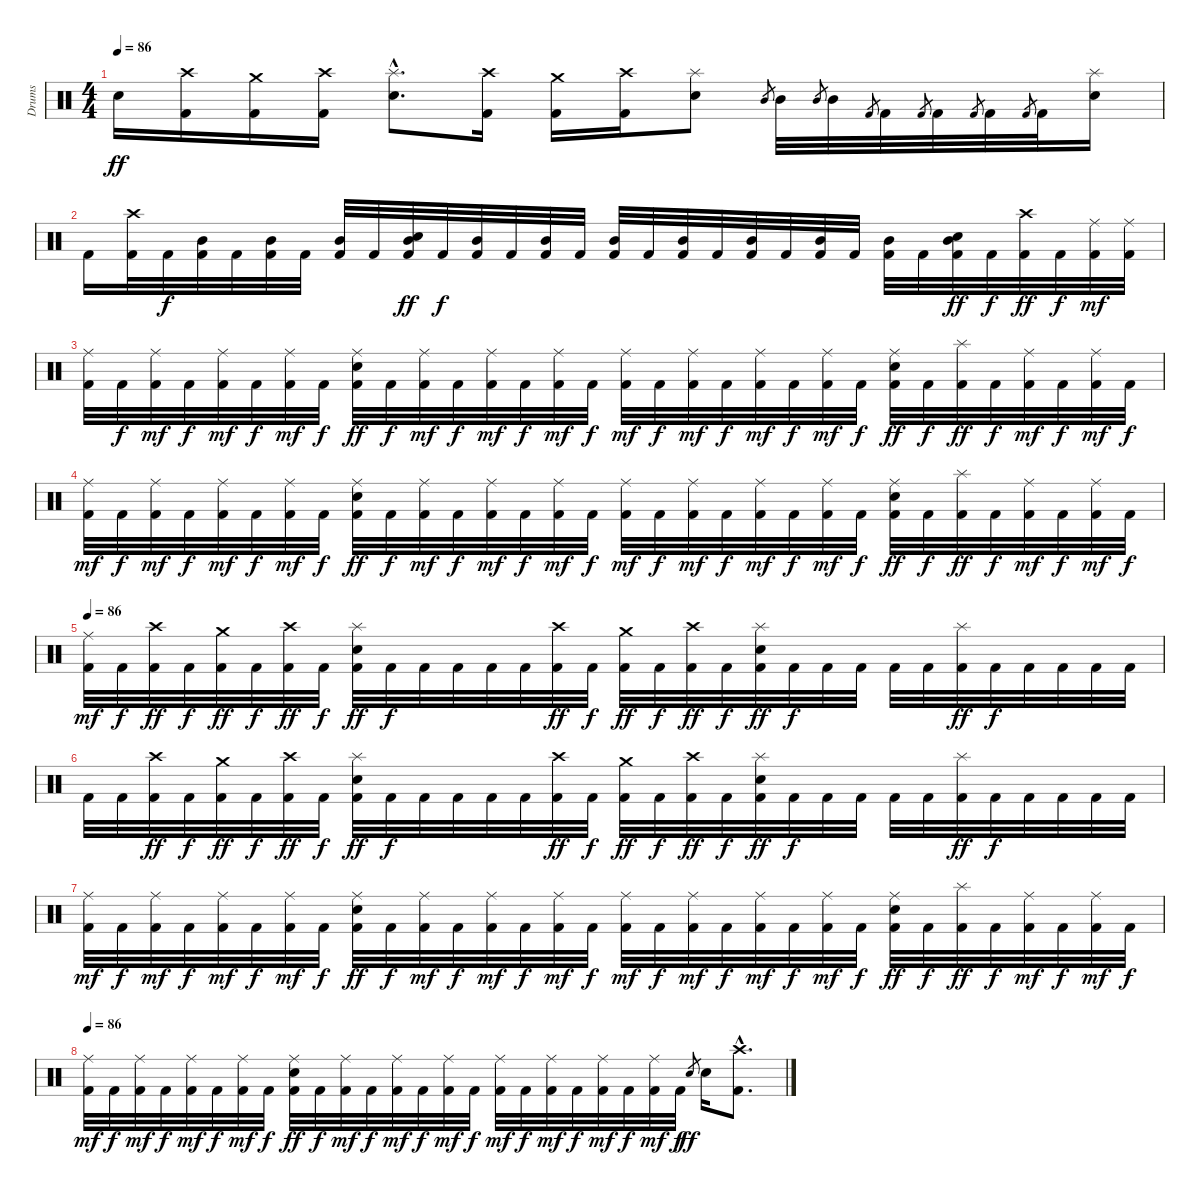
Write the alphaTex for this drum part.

\track ("Drums" "Drums") {instrument percussion}
\staff {score}
\articulation defaults
\ts (4 4)
\tempo 86
\clef neutral
\ks c "Electric Snare (hit)".16{dy ff}
("Crash high (hit)" "Kick (hit) 2").16 ("Crash medium (hit)" "Kick (hit) 2").16 ("Crash high (hit)" "Kick (hit) 2").16 ("Splash (hit)"{hac} "Electric Snare (hit)"{hac}).8{d} ("Crash high (hit)" "Kick (hit) 2").16 ("Crash medium (hit)" "Kick (hit) 2").16 ("Crash high (hit)" "Kick (hit) 2").16 ("Splash (hit)" "Electric Snare (hit)").8 "Mid Tom (hit)".8{gr} "Mid Tom (hit)".32 "Mid Tom (hit)".8{gr} "Mid Tom (hit)".32 "Kick (hit) 2".8{gr} "Kick (hit) 2".32 "Kick (hit) 2".8{gr} "Kick (hit) 2".32 "Kick (hit) 2".8{gr} "Kick (hit) 2".32 "Kick (hit) 2".8{gr} "Kick (hit) 2".32 ("Splash (hit)" "Electric Snare (hit)").16 |
"Kick (hit) 2".16 ("Crash high (hit)" "Kick (hit) 2").32 "Kick (hit) 2".32{dy f} ("Mid Tom (hit)" "Kick (hit) 2").32 "Kick (hit) 2".32 ("Mid Tom (hit)" "Kick (hit) 2").32 "Kick (hit) 2".32 ("Mid Tom (hit)" "Kick (hit) 2").32 "Kick (hit) 2".32 ("Electric Snare (hit)" "Mid Tom (hit)" "Kick (hit) 2").32{dy ff} "Kick (hit) 2".32{dy f} ("Mid Tom (hit)" "Kick (hit) 2").32 "Kick (hit) 2".32 ("Mid Tom (hit)" "Kick (hit) 2").32 "Kick (hit) 2".32 ("Mid Tom (hit)" "Kick (hit) 2").32 "Kick (hit) 2".32 ("Mid Tom (hit)" "Kick (hit) 2").32 "Kick (hit) 2".32 ("Mid Tom (hit)" "Kick (hit) 2").32 "Kick (hit) 2".32 ("Mid Tom (hit)" "Kick (hit) 2").32 "Kick (hit) 2".32 ("Mid Tom (hit)" "Kick (hit) 2").32 "Kick (hit) 2".32 ("Electric Snare (hit)" "Mid Tom (hit)" "Kick (hit) 2").32{dy ff} "Kick (hit) 2".32{dy f} ("Crash high (hit)" "Kick (hit) 2").32{dy ff} "Kick (hit) 2".32{dy f} ("Ride (middle)" "Kick (hit) 2").32{dy mf} ("Ride (middle)" "Kick (hit) 2").32 |
("Ride (middle)" "Kick (hit) 2").32 "Kick (hit) 2".32{dy f} ("Ride (middle)" "Kick (hit) 2").32{dy mf} "Kick (hit) 2".32{dy f} ("Ride (middle)" "Kick (hit) 2").32{dy mf} "Kick (hit) 2".32{dy f} ("Ride (middle)" "Kick (hit) 2").32{dy mf} "Kick (hit) 2".32{dy f} ("Ride (middle)" "Electric Snare (hit)" "Kick (hit) 2").32{dy ff} "Kick (hit) 2".32{dy f} ("Ride (middle)" "Kick (hit) 2").32{dy mf} "Kick (hit) 2".32{dy f} ("Ride (middle)" "Kick (hit) 2").32{dy mf} "Kick (hit) 2".32{dy f} ("Ride (middle)" "Kick (hit) 2").32{dy mf} "Kick (hit) 2".32{dy f} ("Ride (middle)" "Kick (hit) 2").32{dy mf} "Kick (hit) 2".32{dy f} ("Ride (middle)" "Kick (hit) 2").32{dy mf} "Kick (hit) 2".32{dy f} ("Ride (middle)" "Kick (hit) 2").32{dy mf} "Kick (hit) 2".32{dy f} ("Ride (middle)" "Kick (hit) 2").32{dy mf} "Kick (hit) 2".32{dy f} ("Ride (middle)" "Electric Snare (hit)" "Kick (hit) 2").32{dy ff} "Kick (hit) 2".32{dy f} ("Splash (hit)" "Kick (hit) 2").32{dy ff} "Kick (hit) 2".32{dy f} ("Ride (middle)" "Kick (hit) 2").32{dy mf} "Kick (hit) 2".32{dy f} ("Ride (middle)" "Kick (hit) 2").32{dy mf} "Kick (hit) 2".32{dy f} |
("Ride (middle)" "Kick (hit) 2").32{dy mf} "Kick (hit) 2".32{dy f} ("Ride (middle)" "Kick (hit) 2").32{dy mf} "Kick (hit) 2".32{dy f} ("Ride (middle)" "Kick (hit) 2").32{dy mf} "Kick (hit) 2".32{dy f} ("Ride (middle)" "Kick (hit) 2").32{dy mf} "Kick (hit) 2".32{dy f} ("Ride (middle)" "Electric Snare (hit)" "Kick (hit) 2").32{dy ff} "Kick (hit) 2".32{dy f} ("Ride (middle)" "Kick (hit) 2").32{dy mf} "Kick (hit) 2".32{dy f} ("Ride (middle)" "Kick (hit) 2").32{dy mf} "Kick (hit) 2".32{dy f} ("Ride (middle)" "Kick (hit) 2").32{dy mf} "Kick (hit) 2".32{dy f} ("Ride (middle)" "Kick (hit) 2").32{dy mf} "Kick (hit) 2".32{dy f} ("Ride (middle)" "Kick (hit) 2").32{dy mf} "Kick (hit) 2".32{dy f} ("Ride (middle)" "Kick (hit) 2").32{dy mf} "Kick (hit) 2".32{dy f} ("Ride (middle)" "Kick (hit) 2").32{dy mf} "Kick (hit) 2".32{dy f} ("Ride (middle)" "Electric Snare (hit)" "Kick (hit) 2").32{dy ff} "Kick (hit) 2".32{dy f} ("Splash (hit)" "Kick (hit) 2").32{dy ff} "Kick (hit) 2".32{dy f} ("Ride (middle)" "Kick (hit) 2").32{dy mf} "Kick (hit) 2".32{dy f} ("Ride (middle)" "Kick (hit) 2").32{dy mf} "Kick (hit) 2".32{dy f} |
\tempo 86
("Ride (middle)" "Kick (hit) 2").32{dy mf} "Kick (hit) 2".32{dy f} ("Crash high (hit)" "Kick (hit) 2").32{dy ff} "Kick (hit) 2".32{dy f} ("Crash medium (hit)" "Kick (hit) 2").32{dy ff} "Kick (hit) 2".32{dy f} ("Crash high (hit)" "Kick (hit) 2").32{dy ff} "Kick (hit) 2".32{dy f} ("Splash (hit)" "Electric Snare (hit)" "Kick (hit) 2").32{dy ff} "Kick (hit) 2".32{dy f} "Kick (hit) 2".32 "Kick (hit) 2".32 "Kick (hit) 2".32 "Kick (hit) 2".32 ("Crash high (hit)" "Kick (hit) 2").32{dy ff} "Kick (hit) 2".32{dy f} ("Crash medium (hit)" "Kick (hit) 2").32{dy ff} "Kick (hit) 2".32{dy f} ("Crash high (hit)" "Kick (hit) 2").32{dy ff} "Kick (hit) 2".32{dy f} ("Splash (hit)" "Electric Snare (hit)" "Kick (hit) 2").32{dy ff} "Kick (hit) 2".32{dy f} "Kick (hit) 2".32 "Kick (hit) 2".32 "Kick (hit) 2".32 "Kick (hit) 2".32 ("Splash (hit)" "Kick (hit) 2").32{dy ff} "Kick (hit) 2".32{dy f} "Kick (hit) 2".32 "Kick (hit) 2".32 "Kick (hit) 2".32 "Kick (hit) 2".32 |
"Kick (hit) 2".32 "Kick (hit) 2".32 ("Crash high (hit)" "Kick (hit) 2").32{dy ff} "Kick (hit) 2".32{dy f} ("Crash medium (hit)" "Kick (hit) 2").32{dy ff} "Kick (hit) 2".32{dy f} ("Crash high (hit)" "Kick (hit) 2").32{dy ff} "Kick (hit) 2".32{dy f} ("Splash (hit)" "Electric Snare (hit)" "Kick (hit) 2").32{dy ff} "Kick (hit) 2".32{dy f} "Kick (hit) 2".32 "Kick (hit) 2".32 "Kick (hit) 2".32 "Kick (hit) 2".32 ("Crash high (hit)" "Kick (hit) 2").32{dy ff} "Kick (hit) 2".32{dy f} ("Crash medium (hit)" "Kick (hit) 2").32{dy ff} "Kick (hit) 2".32{dy f} ("Crash high (hit)" "Kick (hit) 2").32{dy ff} "Kick (hit) 2".32{dy f} ("Splash (hit)" "Electric Snare (hit)" "Kick (hit) 2").32{dy ff} "Kick (hit) 2".32{dy f} "Kick (hit) 2".32 "Kick (hit) 2".32 "Kick (hit) 2".32 "Kick (hit) 2".32 ("Splash (hit)" "Kick (hit) 2").32{dy ff} "Kick (hit) 2".32{dy f} "Kick (hit) 2".32 "Kick (hit) 2".32 "Kick (hit) 2".32 "Kick (hit) 2".32 |
("Ride (middle)" "Kick (hit) 2").32{dy mf} "Kick (hit) 2".32{dy f} ("Ride (middle)" "Kick (hit) 2").32{dy mf} "Kick (hit) 2".32{dy f} ("Ride (middle)" "Kick (hit) 2").32{dy mf} "Kick (hit) 2".32{dy f} ("Ride (middle)" "Kick (hit) 2").32{dy mf} "Kick (hit) 2".32{dy f} ("Ride (middle)" "Electric Snare (hit)" "Kick (hit) 2").32{dy ff} "Kick (hit) 2".32{dy f} ("Ride (middle)" "Kick (hit) 2").32{dy mf} "Kick (hit) 2".32{dy f} ("Ride (middle)" "Kick (hit) 2").32{dy mf} "Kick (hit) 2".32{dy f} ("Ride (middle)" "Kick (hit) 2").32{dy mf} "Kick (hit) 2".32{dy f} ("Ride (middle)" "Kick (hit) 2").32{dy mf} "Kick (hit) 2".32{dy f} ("Ride (middle)" "Kick (hit) 2").32{dy mf} "Kick (hit) 2".32{dy f} ("Ride (middle)" "Kick (hit) 2").32{dy mf} "Kick (hit) 2".32{dy f} ("Ride (middle)" "Kick (hit) 2").32{dy mf} "Kick (hit) 2".32{dy f} ("Ride (middle)" "Electric Snare (hit)" "Kick (hit) 2").32{dy ff} "Kick (hit) 2".32{dy f} ("Splash (hit)" "Kick (hit) 2").32{dy ff} "Kick (hit) 2".32{dy f} ("Ride (middle)" "Kick (hit) 2").32{dy mf} "Kick (hit) 2".32{dy f} ("Ride (middle)" "Kick (hit) 2").32{dy mf} "Kick (hit) 2".32{dy f} |
\tempo 86
("Ride (middle)" "Kick (hit) 2").32{dy mf} "Kick (hit) 2".32{dy f} ("Ride (middle)" "Kick (hit) 2").32{dy mf} "Kick (hit) 2".32{dy f} ("Ride (middle)" "Kick (hit) 2").32{dy mf} "Kick (hit) 2".32{dy f} ("Ride (middle)" "Kick (hit) 2").32{dy mf} "Kick (hit) 2".32{dy f} ("Ride (middle)" "Electric Snare (hit)" "Kick (hit) 2").32{dy ff} "Kick (hit) 2".32{dy f} ("Ride (middle)" "Kick (hit) 2").32{dy mf} "Kick (hit) 2".32{dy f} ("Ride (middle)" "Kick (hit) 2").32{dy mf} "Kick (hit) 2".32{dy f} ("Ride (middle)" "Kick (hit) 2").32{dy mf} "Kick (hit) 2".32{dy f} ("Ride (middle)" "Kick (hit) 2").32{dy mf} "Kick (hit) 2".32{dy f} ("Ride (middle)" "Kick (hit) 2").32{dy mf} "Kick (hit) 2".32{dy f} ("Ride (middle)" "Kick (hit) 2").32{dy mf} "Kick (hit) 2".32{dy f} ("Ride (middle)" "Kick (hit) 2").32{dy mf} "Kick (hit) 2".32{dy f} "Electric Snare (hit)".8{gr dy ff} "Electric Snare (hit)".16 ("Crash high (hit)"{hac} "Kick (hit) 2"{hac}).8{d}
